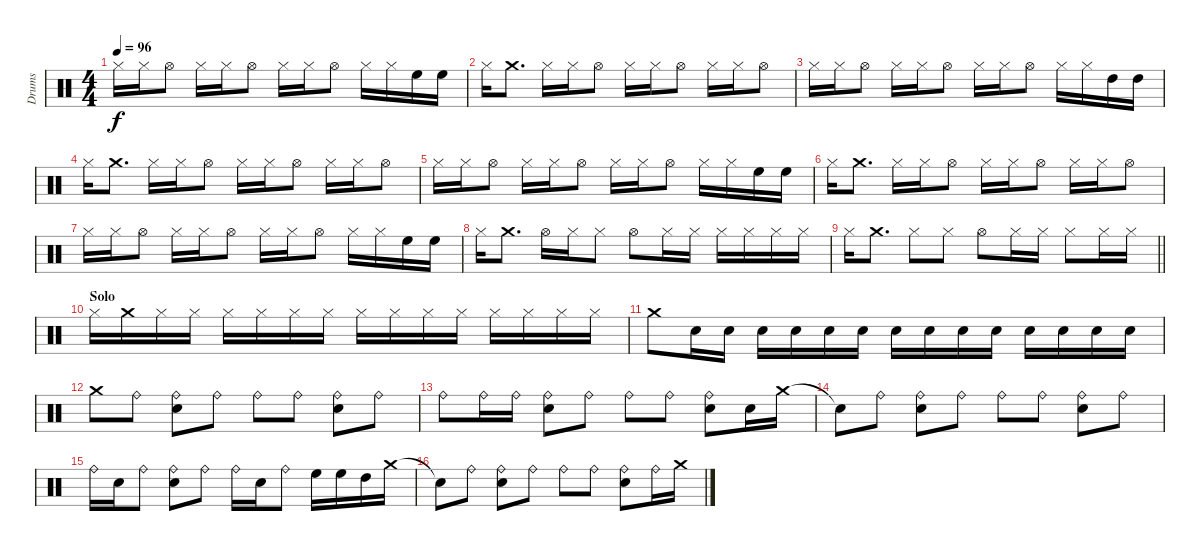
\track ("Drums" "Drums") {instrument percussion}
\staff {score}
\articulation defaults
\ts (4 4)
\tempo 96
\clef neutral
\ks c "Hi-Hat (closed)".16{dy f} "Hi-Hat (closed)".16 "Hi-Hat (open)".8 "Hi-Hat (closed)".16 "Hi-Hat (closed)".16 "Hi-Hat (open)".8 "Hi-Hat (closed)".16 "Hi-Hat (closed)".16 "Hi-Hat (open)".8 "Hi-Hat (closed)".16 "Hi-Hat (closed)".16 "High Floor Tom (hit)".16 "High Floor Tom (hit)".16
|
"Hi-Hat (closed)".16 "Crash medium (hit)".8{d} "Hi-Hat (closed)".16 "Hi-Hat (closed)".16 "Hi-Hat (open)".8 "Hi-Hat (closed)".16 "Hi-Hat (closed)".16 "Hi-Hat (open)".8 "Hi-Hat (closed)".16 "Hi-Hat (closed)".16 "Hi-Hat (open)".8 |
"Hi-Hat (closed)".16 "Hi-Hat (closed)".16 "Hi-Hat (open)".8 "Hi-Hat (closed)".16 "Hi-Hat (closed)".16 "Hi-Hat (open)".8 "Hi-Hat (closed)".16 "Hi-Hat (closed)".16 "Hi-Hat (open)".8 "Hi-Hat (closed)".16 "Hi-Hat (closed)".16 "High Tom (hit)".16 "High Tom (hit)".16 |
"Hi-Hat (closed)".16 "Crash medium (hit)".8{d} "Hi-Hat (closed)".16 "Hi-Hat (closed)".16 "Hi-Hat (open)".8 "Hi-Hat (closed)".16 "Hi-Hat (closed)".16 "Hi-Hat (open)".8 "Hi-Hat (closed)".16 "Hi-Hat (closed)".16 "Hi-Hat (open)".8 |
"Hi-Hat (closed)".16 "Hi-Hat (closed)".16 "Hi-Hat (open)".8 "Hi-Hat (closed)".16 "Hi-Hat (closed)".16 "Hi-Hat (open)".8 "Hi-Hat (closed)".16 "Hi-Hat (closed)".16 "Hi-Hat (open)".8 "Hi-Hat (closed)".16 "Hi-Hat (closed)".16 "High Floor Tom (hit)".16 "High Floor Tom (hit)".16 |
"Hi-Hat (closed)".16 "Crash medium (hit)".8{d} "Hi-Hat (closed)".16 "Hi-Hat (closed)".16 "Hi-Hat (open)".8 "Hi-Hat (closed)".16 "Hi-Hat (closed)".16 "Hi-Hat (open)".8 "Hi-Hat (closed)".16 "Hi-Hat (closed)".16 "Hi-Hat (open)".8 |
"Hi-Hat (closed)".16 "Hi-Hat (closed)".16 "Hi-Hat (open)".8 "Hi-Hat (closed)".16 "Hi-Hat (closed)".16 "Hi-Hat (open)".8 "Hi-Hat (closed)".16 "Hi-Hat (closed)".16 "Hi-Hat (open)".8 "Hi-Hat (closed)".16 "Hi-Hat (closed)".16 "High Floor Tom (hit)".16 "High Floor Tom (hit)".16 |
"Hi-Hat (closed)".16 "Crash medium (hit)".8{d} "Hi-Hat (open)".16 "Hi-Hat (closed)".16 "Hi-Hat (closed)".8 "Hi-Hat (open)".8 "Hi-Hat (closed)".16 "Hi-Hat (closed)".16 "Hi-Hat (closed)".16 "Hi-Hat (closed)".16 "Hi-Hat (closed)".16 "Hi-Hat (closed)".16 |
\barLineRight lightlight "Hi-Hat (closed)".16 "Crash medium (hit)".8{d} "Hi-Hat (closed)".8 "Hi-Hat (closed)".8 "Hi-Hat (open)".8 "Hi-Hat (closed)".16 "Hi-Hat (closed)".16 "Hi-Hat (closed)".8 "Hi-Hat (closed)".16 "Hi-Hat (closed)".16
|
\section ("" "Solo")
"Hi-Hat (closed)".16 "Crash medium (hit)".16 "Hi-Hat (closed)".16 "Hi-Hat (closed)".16 "Hi-Hat (closed)".16 "Hi-Hat (closed)".16 "Hi-Hat (closed)".16 "Hi-Hat (closed)".16 "Hi-Hat (closed)".16 "Hi-Hat (closed)".16 "Hi-Hat (closed)".16 "Hi-Hat (closed)".16 "Hi-Hat (closed)".16 "Hi-Hat (closed)".16 "Hi-Hat (closed)".16 "Hi-Hat (closed)".16 |
"Crash medium (hit)".8 "Electric Snare (hit)".16 "Electric Snare (hit)".16 "Electric Snare (hit)".16 "Electric Snare (hit)".16 "Electric Snare (hit)".16 "Electric Snare (hit)".16 "Electric Snare (hit)".16 "Electric Snare (hit)".16 "Electric Snare (hit)".16 "Electric Snare (hit)".16 "Electric Snare (hit)".16 "Electric Snare (hit)".16 "Electric Snare (hit)".16 "Electric Snare (hit)".16 |
"Crash medium (hit)".8 "Ride (bell)".8 ("Ride (bell)" "Electric Snare (hit)").8 "Ride (bell)".8 "Ride (bell)".8 "Ride (bell)".8 ("Ride (bell)" "Electric Snare (hit)").8 "Ride (bell)".8 |
"Ride (bell)".8 "Ride (bell)".16 "Ride (bell)".16 ("Ride (bell)" "Electric Snare (hit)").8 "Ride (bell)".8 "Ride (bell)".8 "Ride (bell)".8 ("Ride (bell)" "Electric Snare (hit)").8 "Electric Snare (hit)".16 "Crash medium (hit)".16 |
"Snare (hit)"{t}.8 "Ride (bell)".8 ("Ride (bell)" "Electric Snare (hit)").8 "Ride (bell)".8 "Ride (bell)".8 "Ride (bell)".8 ("Ride (bell)" "Electric Snare (hit)").8 "Ride (bell)".8 |
"Ride (bell)".16 "Electric Snare (hit)".16 "Ride (bell)".8 ("Ride (bell)" "Electric Snare (hit)").8 "Ride (bell)".8 "Ride (bell)".16 "Electric Snare (hit)".16 "Ride (bell)".8 "High Floor Tom (hit)".16 "High Floor Tom (hit)".16 "High Tom (hit)".16 "Crash medium (hit)".16 |
"Snare (hit)"{t}.8 "Ride (bell)".8 ("Ride (bell)" "Electric Snare (hit)").8 "Ride (bell)".8 "Ride (bell)".8 "Ride (bell)".8 ("Ride (bell)" "Electric Snare (hit)").8 "Ride (bell)".16 "Crash medium (hit)".16
